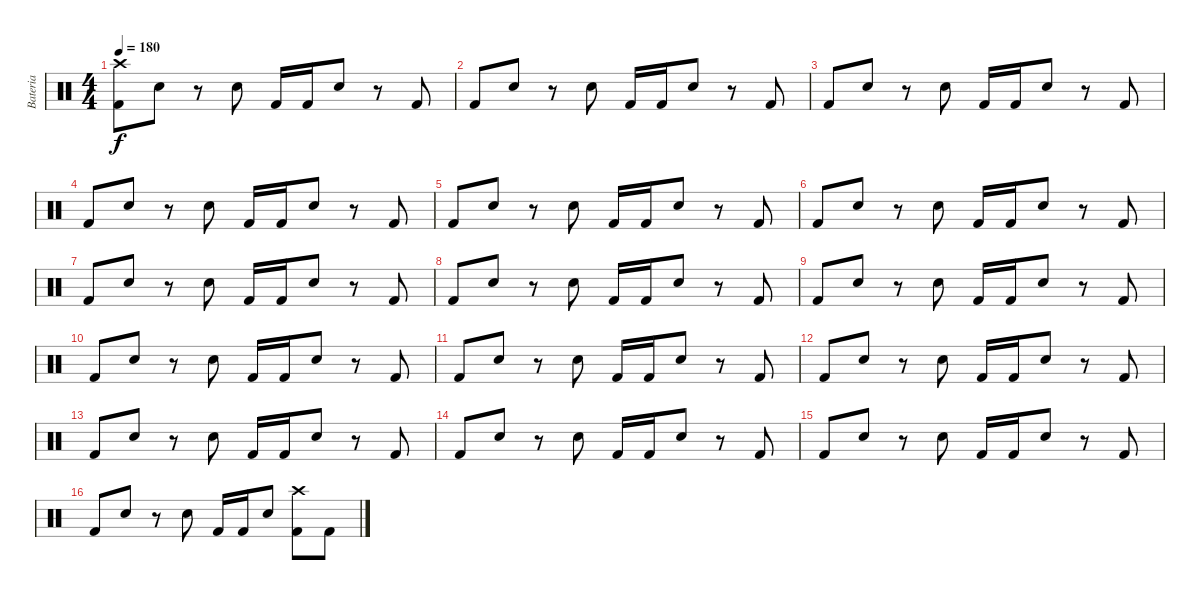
\track ("Bateria" "Bateria") {instrument percussion}
\staff {score}
\articulation defaults
\ts (4 4)
\tempo 180
\clef neutral
\ks c
("Kick (hit) 2" "Crash high (hit)").8{dy f} "Electric Snare (hit)".8 r.8 "Electric Snare (hit)".8 "Kick (hit) 2".16 "Kick (hit) 2".16 "Electric Snare (hit)".8 r.8 "Kick (hit) 2".8 |
"Kick (hit) 2".8 "Electric Snare (hit)".8 r.8 "Electric Snare (hit)".8 "Kick (hit) 2".16 "Kick (hit) 2".16 "Electric Snare (hit)".8 r.8 "Kick (hit) 2".8 |
"Kick (hit) 2".8 "Electric Snare (hit)".8 r.8 "Electric Snare (hit)".8 "Kick (hit) 2".16 "Kick (hit) 2".16 "Electric Snare (hit)".8 r.8 "Kick (hit) 2".8 |
"Kick (hit) 2".8 "Electric Snare (hit)".8 r.8 "Electric Snare (hit)".8 "Kick (hit) 2".16 "Kick (hit) 2".16 "Electric Snare (hit)".8 r.8 "Kick (hit) 2".8 |
"Kick (hit) 2".8 "Electric Snare (hit)".8 r.8 "Electric Snare (hit)".8 "Kick (hit) 2".16 "Kick (hit) 2".16 "Electric Snare (hit)".8 r.8 "Kick (hit) 2".8 |
"Kick (hit) 2".8 "Electric Snare (hit)".8 r.8 "Electric Snare (hit)".8 "Kick (hit) 2".16 "Kick (hit) 2".16 "Electric Snare (hit)".8 r.8 "Kick (hit) 2".8 |
"Kick (hit) 2".8 "Electric Snare (hit)".8 r.8 "Electric Snare (hit)".8 "Kick (hit) 2".16 "Kick (hit) 2".16 "Electric Snare (hit)".8 r.8 "Kick (hit) 2".8 |
"Kick (hit) 2".8 "Electric Snare (hit)".8 r.8 "Electric Snare (hit)".8 "Kick (hit) 2".16 "Kick (hit) 2".16 "Electric Snare (hit)".8 r.8 "Kick (hit) 2".8 |
"Kick (hit) 2".8 "Electric Snare (hit)".8 r.8 "Electric Snare (hit)".8 "Kick (hit) 2".16 "Kick (hit) 2".16 "Electric Snare (hit)".8 r.8 "Kick (hit) 2".8 |
"Kick (hit) 2".8 "Electric Snare (hit)".8 r.8 "Electric Snare (hit)".8 "Kick (hit) 2".16 "Kick (hit) 2".16 "Electric Snare (hit)".8 r.8 "Kick (hit) 2".8 |
"Kick (hit) 2".8 "Electric Snare (hit)".8 r.8 "Electric Snare (hit)".8 "Kick (hit) 2".16 "Kick (hit) 2".16 "Electric Snare (hit)".8 r.8 "Kick (hit) 2".8 |
"Kick (hit) 2".8 "Electric Snare (hit)".8 r.8 "Electric Snare (hit)".8 "Kick (hit) 2".16 "Kick (hit) 2".16 "Electric Snare (hit)".8 r.8 "Kick (hit) 2".8 |
"Kick (hit) 2".8 "Electric Snare (hit)".8 r.8 "Electric Snare (hit)".8 "Kick (hit) 2".16 "Kick (hit) 2".16 "Electric Snare (hit)".8 r.8 "Kick (hit) 2".8 |
"Kick (hit) 2".8 "Electric Snare (hit)".8 r.8 "Electric Snare (hit)".8 "Kick (hit) 2".16 "Kick (hit) 2".16 "Electric Snare (hit)".8 r.8 "Kick (hit) 2".8 |
"Kick (hit) 2".8 "Electric Snare (hit)".8 r.8 "Electric Snare (hit)".8 "Kick (hit) 2".16 "Kick (hit) 2".16 "Electric Snare (hit)".8 r.8 "Kick (hit) 2".8 |
"Kick (hit) 2".8 "Electric Snare (hit)".8 r.8 "Electric Snare (hit)".8 "Kick (hit) 2".16 "Kick (hit) 2".16 "Electric Snare (hit)".8 ("Kick (hit) 2" "Crash high (hit)").8 "Kick (hit) 2".8
